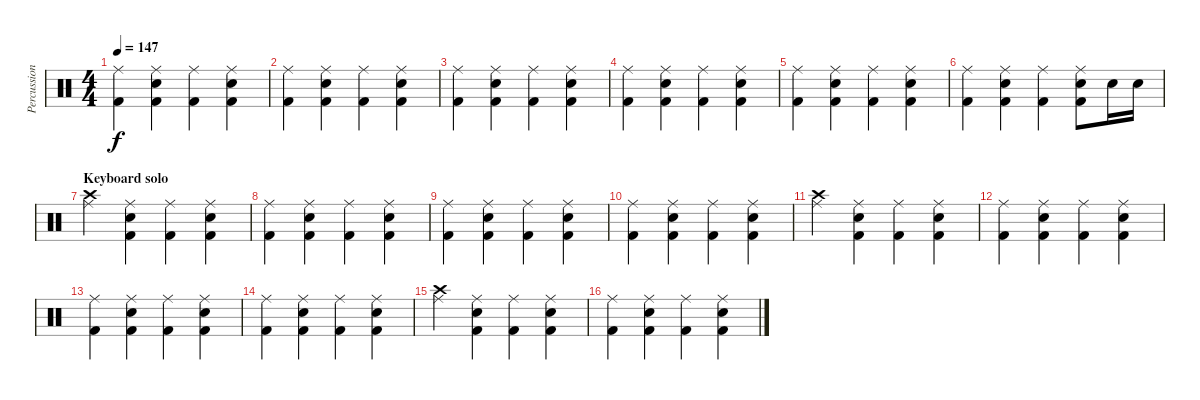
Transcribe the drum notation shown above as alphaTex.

\track ("Percussion" "Percussion") {instrument percussion}
\staff {score}
\articulation defaults
\ts (4 4)
\tempo 147
\clef neutral
\ks c
("Ride (middle)" "Kick (hit) 2").4{dy f} ("Ride (middle)" "Snare (hit) 2" "Kick (hit) 2").4 ("Ride (middle)" "Kick (hit) 2").4 ("Ride (middle)" "Snare (hit) 2" "Kick (hit) 2").4 |
("Ride (middle)" "Kick (hit) 2").4 ("Ride (middle)" "Snare (hit) 2" "Kick (hit) 2").4 ("Ride (middle)" "Kick (hit) 2").4 ("Ride (middle)" "Snare (hit) 2" "Kick (hit) 2").4 |
("Ride (middle)" "Kick (hit) 2").4 ("Ride (middle)" "Snare (hit) 2" "Kick (hit) 2").4 ("Ride (middle)" "Kick (hit) 2").4 ("Ride (middle)" "Snare (hit) 2" "Kick (hit) 2").4 |
("Ride (middle)" "Kick (hit) 2").4 ("Ride (middle)" "Snare (hit) 2" "Kick (hit) 2").4 ("Ride (middle)" "Kick (hit) 2").4 ("Ride (middle)" "Snare (hit) 2" "Kick (hit) 2").4 |
("Ride (middle)" "Kick (hit) 2").4 ("Ride (middle)" "Snare (hit) 2" "Kick (hit) 2").4 ("Ride (middle)" "Kick (hit) 2").4 ("Ride (middle)" "Snare (hit) 2" "Kick (hit) 2").4 |
("Ride (middle)" "Kick (hit) 2").4 ("Ride (middle)" "Snare (hit) 2" "Kick (hit) 2").4 ("Ride (middle)" "Kick (hit) 2").4 ("Ride (middle)" "Snare (hit) 2" "Kick (hit) 2").8 "Snare (hit) 2".16 "Snare (hit) 2".16 |
\section ("" "Keyboard solo")
("Ride (middle)" "Crash high (hit)").4 ("Ride (middle)" "Snare (hit) 2" "Kick (hit) 2").4 ("Ride (middle)" "Kick (hit) 2").4 ("Ride (middle)" "Snare (hit) 2" "Kick (hit) 2").4 |
("Ride (middle)" "Kick (hit) 2").4 ("Ride (middle)" "Snare (hit) 2" "Kick (hit) 2").4 ("Ride (middle)" "Kick (hit) 2").4 ("Ride (middle)" "Snare (hit) 2" "Kick (hit) 2").4 |
("Ride (middle)" "Kick (hit) 2").4 ("Ride (middle)" "Snare (hit) 2" "Kick (hit) 2").4 ("Ride (middle)" "Kick (hit) 2").4 ("Ride (middle)" "Snare (hit) 2" "Kick (hit) 2").4 |
("Ride (middle)" "Kick (hit) 2").4 ("Ride (middle)" "Snare (hit) 2" "Kick (hit) 2").4 ("Ride (middle)" "Kick (hit) 2").4 ("Ride (middle)" "Snare (hit) 2" "Kick (hit) 2").4 |
("Ride (middle)" "Crash high (hit)").4 ("Ride (middle)" "Snare (hit) 2" "Kick (hit) 2").4 ("Ride (middle)" "Kick (hit) 2").4 ("Ride (middle)" "Snare (hit) 2" "Kick (hit) 2").4 |
("Ride (middle)" "Kick (hit) 2").4 ("Ride (middle)" "Snare (hit) 2" "Kick (hit) 2").4 ("Ride (middle)" "Kick (hit) 2").4 ("Ride (middle)" "Snare (hit) 2" "Kick (hit) 2").4 |
("Ride (middle)" "Kick (hit) 2").4 ("Ride (middle)" "Snare (hit) 2" "Kick (hit) 2").4 ("Ride (middle)" "Kick (hit) 2").4 ("Ride (middle)" "Snare (hit) 2" "Kick (hit) 2").4 |
("Ride (middle)" "Kick (hit) 2").4 ("Ride (middle)" "Snare (hit) 2" "Kick (hit) 2").4 ("Ride (middle)" "Kick (hit) 2").4 ("Ride (middle)" "Snare (hit) 2" "Kick (hit) 2").4 |
("Ride (middle)" "Crash high (hit)").4 ("Ride (middle)" "Snare (hit) 2" "Kick (hit) 2").4 ("Ride (middle)" "Kick (hit) 2").4 ("Ride (middle)" "Snare (hit) 2" "Kick (hit) 2").4 |
("Ride (middle)" "Kick (hit) 2").4 ("Ride (middle)" "Snare (hit) 2" "Kick (hit) 2").4 ("Ride (middle)" "Kick (hit) 2").4 ("Ride (middle)" "Snare (hit) 2" "Kick (hit) 2").4
